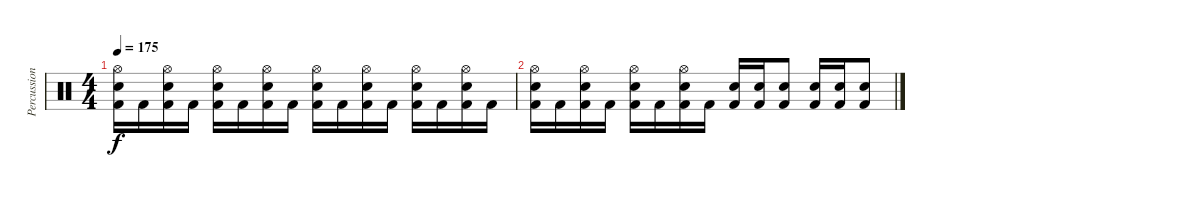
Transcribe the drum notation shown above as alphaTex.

\track ("Percussion" "Percussion") {instrument percussion}
\staff {score}
\articulation defaults
\ts (4 4)
\tempo 175
\clef neutral
\ks c
("Hi-Hat (open)" "Electric Snare (hit)" "Kick (hit) 2").16{dy f} "Kick (hit) 2".16 ("Hi-Hat (open)" "Electric Snare (hit)" "Kick (hit) 2").16 "Kick (hit) 2".16 ("Hi-Hat (open)" "Electric Snare (hit)" "Kick (hit) 2").16 "Kick (hit) 2".16 ("Hi-Hat (open)" "Electric Snare (hit)" "Kick (hit) 2").16 "Kick (hit) 2".16 ("Hi-Hat (open)" "Electric Snare (hit)" "Kick (hit) 2").16 "Kick (hit) 2".16 ("Hi-Hat (open)" "Electric Snare (hit)" "Kick (hit) 2").16 "Kick (hit) 2".16 ("Hi-Hat (open)" "Electric Snare (hit)" "Kick (hit) 2").16 "Kick (hit) 2".16 ("Hi-Hat (open)" "Electric Snare (hit)" "Kick (hit) 2").16 "Kick (hit) 2".16 |
("Hi-Hat (open)" "Electric Snare (hit)" "Kick (hit) 2").16 "Kick (hit) 2".16 ("Hi-Hat (open)" "Electric Snare (hit)" "Kick (hit) 2").16 "Kick (hit) 2".16 ("Hi-Hat (open)" "Electric Snare (hit)" "Kick (hit) 2").16 "Kick (hit) 2".16 ("Hi-Hat (open)" "Electric Snare (hit)" "Kick (hit) 2").16 "Kick (hit) 2".16 ("Electric Snare (hit)" "Kick (hit) 2").16 ("Electric Snare (hit)" "Kick (hit) 2").16 ("Electric Snare (hit)" "Kick (hit) 2").8 ("Electric Snare (hit)" "Kick (hit) 2").16 ("Electric Snare (hit)" "Kick (hit) 2").16 ("Electric Snare (hit)" "Kick (hit) 2").8
